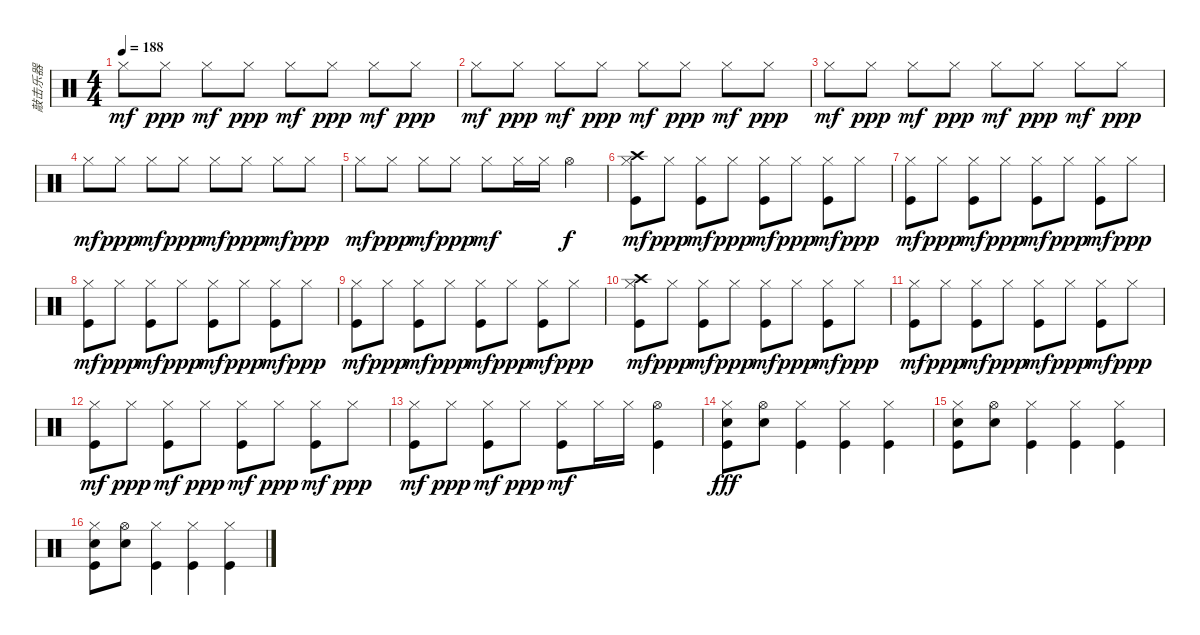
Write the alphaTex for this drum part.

\track ("敲击乐器" "敲击乐器") {instrument percussion}
\staff {score}
\articulation defaults
\ts (4 4)
\tempo 188
\clef neutral
\ks c "Hi-Hat (closed)".8{dy mf} "Hi-Hat (closed)".8{dy ppp} "Hi-Hat (closed)".8{dy mf} "Hi-Hat (closed)".8{dy ppp} "Hi-Hat (closed)".8{dy mf} "Hi-Hat (closed)".8{dy ppp} "Hi-Hat (closed)".8{dy mf} "Hi-Hat (closed)".8{dy ppp}
|
"Hi-Hat (closed)".8{dy mf} "Hi-Hat (closed)".8{dy ppp} "Hi-Hat (closed)".8{dy mf} "Hi-Hat (closed)".8{dy ppp} "Hi-Hat (closed)".8{dy mf} "Hi-Hat (closed)".8{dy ppp} "Hi-Hat (closed)".8{dy mf} "Hi-Hat (closed)".8{dy ppp} |
"Hi-Hat (closed)".8{dy mf} "Hi-Hat (closed)".8{dy ppp} "Hi-Hat (closed)".8{dy mf} "Hi-Hat (closed)".8{dy ppp} "Hi-Hat (closed)".8{dy mf} "Hi-Hat (closed)".8{dy ppp} "Hi-Hat (closed)".8{dy mf} "Hi-Hat (closed)".8{dy ppp} |
"Hi-Hat (closed)".8{dy mf} "Hi-Hat (closed)".8{dy ppp} "Hi-Hat (closed)".8{dy mf} "Hi-Hat (closed)".8{dy ppp} "Hi-Hat (closed)".8{dy mf} "Hi-Hat (closed)".8{dy ppp} "Hi-Hat (closed)".8{dy mf} "Hi-Hat (closed)".8{dy ppp} |
"Hi-Hat (closed)".8{dy mf} "Hi-Hat (closed)".8{dy ppp} "Hi-Hat (closed)".8{dy mf} "Hi-Hat (closed)".8{dy ppp} "Hi-Hat (closed)".8{dy mf} "Hi-Hat (closed)".16 "Hi-Hat (closed)".16 "Hi-Hat (open)".4{dy f} |
("Crash high (hit)" "Hi-Hat (closed)" "Kick (hit)").8{dy mf} "Hi-Hat (closed)".8{dy ppp} ("Hi-Hat (closed)" "Kick (hit)").8{dy mf} "Hi-Hat (closed)".8{dy ppp} ("Hi-Hat (closed)" "Kick (hit)").8{dy mf} "Hi-Hat (closed)".8{dy ppp} ("Hi-Hat (closed)" "Kick (hit)").8{dy mf} "Hi-Hat (closed)".8{dy ppp} |
("Hi-Hat (closed)" "Kick (hit)").8{dy mf} "Hi-Hat (closed)".8{dy ppp} ("Hi-Hat (closed)" "Kick (hit)").8{dy mf} "Hi-Hat (closed)".8{dy ppp} ("Hi-Hat (closed)" "Kick (hit)").8{dy mf} "Hi-Hat (closed)".8{dy ppp} ("Hi-Hat (closed)" "Kick (hit)").8{dy mf} "Hi-Hat (closed)".8{dy ppp} |
("Hi-Hat (closed)" "Kick (hit)").8{dy mf} "Hi-Hat (closed)".8{dy ppp} ("Hi-Hat (closed)" "Kick (hit)").8{dy mf} "Hi-Hat (closed)".8{dy ppp} ("Hi-Hat (closed)" "Kick (hit)").8{dy mf} "Hi-Hat (closed)".8{dy ppp} ("Hi-Hat (closed)" "Kick (hit)").8{dy mf} "Hi-Hat (closed)".8{dy ppp} |
("Hi-Hat (closed)" "Kick (hit)").8{dy mf} "Hi-Hat (closed)".8{dy ppp} ("Hi-Hat (closed)" "Kick (hit)").8{dy mf} "Hi-Hat (closed)".8{dy ppp} ("Hi-Hat (closed)" "Kick (hit)").8{dy mf} "Hi-Hat (closed)".8{dy ppp} ("Hi-Hat (closed)" "Kick (hit)").8{dy mf} "Hi-Hat (closed)".8{dy ppp} |
("Hi-Hat (closed)" "Crash high (hit)" "Kick (hit)").8{dy mf} "Hi-Hat (closed)".8{dy ppp} ("Hi-Hat (closed)" "Kick (hit)").8{dy mf} "Hi-Hat (closed)".8{dy ppp} ("Hi-Hat (closed)" "Kick (hit)").8{dy mf} "Hi-Hat (closed)".8{dy ppp} ("Hi-Hat (closed)" "Kick (hit)").8{dy mf} "Hi-Hat (closed)".8{dy ppp} |
("Hi-Hat (closed)" "Kick (hit)").8{dy mf} "Hi-Hat (closed)".8{dy ppp} ("Hi-Hat (closed)" "Kick (hit)").8{dy mf} "Hi-Hat (closed)".8{dy ppp} ("Hi-Hat (closed)" "Kick (hit)").8{dy mf} "Hi-Hat (closed)".8{dy ppp} ("Hi-Hat (closed)" "Kick (hit)").8{dy mf} "Hi-Hat (closed)".8{dy ppp} |
("Hi-Hat (closed)" "Kick (hit)").8{dy mf} "Hi-Hat (closed)".8{dy ppp} ("Hi-Hat (closed)" "Kick (hit)").8{dy mf} "Hi-Hat (closed)".8{dy ppp} ("Hi-Hat (closed)" "Kick (hit)").8{dy mf} "Hi-Hat (closed)".8{dy ppp} ("Hi-Hat (closed)" "Kick (hit)").8{dy mf} "Hi-Hat (closed)".8{dy ppp} |
("Hi-Hat (closed)" "Kick (hit)").8{dy mf} "Hi-Hat (closed)".8{dy ppp} ("Hi-Hat (closed)" "Kick (hit)").8{dy mf} "Hi-Hat (closed)".8{dy ppp} ("Hi-Hat (closed)" "Kick (hit)").8{dy mf} "Hi-Hat (closed)".16 "Hi-Hat (closed)".16 ("Hi-Hat (open)" "Kick (hit)").4 |
("Hi-Hat (closed)" "Snare (hit) 2" "Kick (hit)").8{dy fff} ("Hi-Hat (open)" "Snare (hit) 2").8 ("Hi-Hat (closed)" "Kick (hit)").4 ("Hi-Hat (closed)" "Kick (hit)").4 ("Hi-Hat (closed)" "Kick (hit)").4 |
("Hi-Hat (closed)" "Snare (hit) 2" "Kick (hit)").8 ("Hi-Hat (open)" "Snare (hit) 2").8 ("Hi-Hat (closed)" "Kick (hit)").4 ("Hi-Hat (closed)" "Kick (hit)").4 ("Hi-Hat (closed)" "Kick (hit)").4 |
("Hi-Hat (closed)" "Snare (hit) 2" "Kick (hit)").8 ("Hi-Hat (open)" "Snare (hit) 2").8 ("Hi-Hat (closed)" "Kick (hit)").4 ("Hi-Hat (closed)" "Kick (hit)").4 ("Hi-Hat (closed)" "Kick (hit)").4
